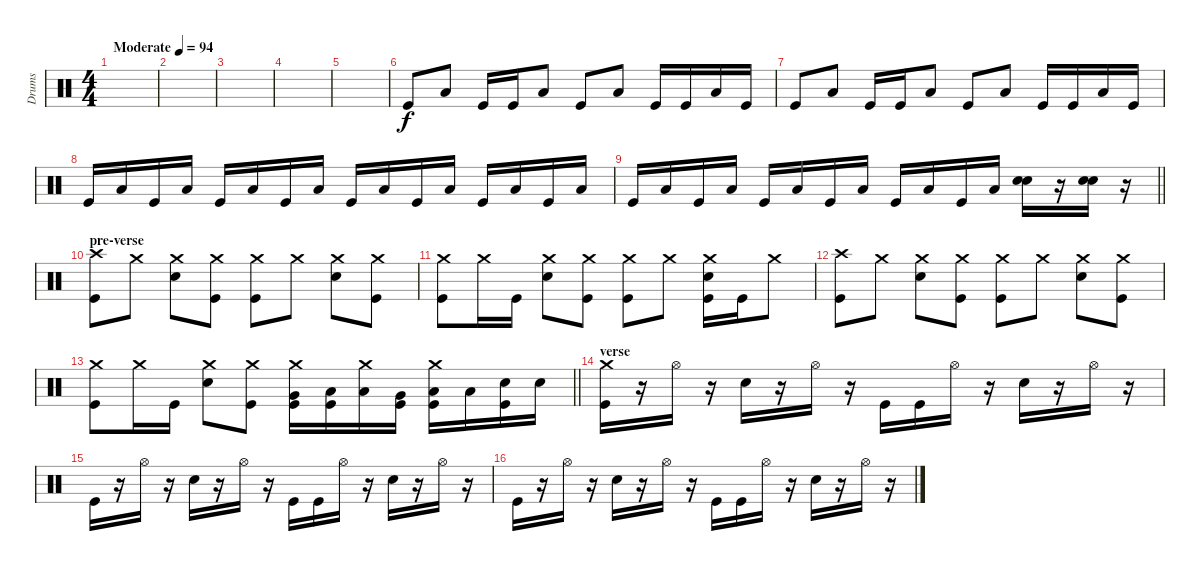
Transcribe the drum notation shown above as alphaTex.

\track ("Drums" "Drums") {instrument percussion}
\staff {score}
\articulation defaults
\ts (4 4)
\tempo (94 "Moderate")
\clef neutral
\ks c
|
|
|
|
|
"Kick (hit)".8 "Low Floor Tom (hit)".8 "Kick (hit)".16 "Kick (hit)".16 "Low Floor Tom (hit)".8 "Kick (hit)".8 "Low Floor Tom (hit)".8 "Kick (hit)".16 "Kick (hit)".16 "Low Floor Tom (hit)".16 "Kick (hit)".16 |
"Kick (hit)".8 "Low Floor Tom (hit)".8 "Kick (hit)".16 "Kick (hit)".16 "Low Floor Tom (hit)".8 "Kick (hit)".8 "Low Floor Tom (hit)".8 "Kick (hit)".16 "Kick (hit)".16 "Low Floor Tom (hit)".16 "Kick (hit)".16 |
"Kick (hit)".16 "Low Floor Tom (hit)".16 "Kick (hit)".16 "Low Floor Tom (hit)".16 "Kick (hit)".16 "Low Floor Tom (hit)".16 "Kick (hit)".16 "Low Floor Tom (hit)".16 "Kick (hit)".16 "Low Floor Tom (hit)".16 "Kick (hit)".16 "Low Floor Tom (hit)".16 "Kick (hit)".16 "Low Floor Tom (hit)".16 "Kick (hit)".16 "Low Floor Tom (hit)".16 |
\barLineRight lightlight "Kick (hit)".16 "Low Floor Tom (hit)".16 "Kick (hit)".16 "Low Floor Tom (hit)".16 "Kick (hit)".16 "Low Floor Tom (hit)".16 "Kick (hit)".16 "Low Floor Tom (hit)".16 "Kick (hit)".16 "Low Floor Tom (hit)".16 "Kick (hit)".16 "Low Floor Tom (hit)".16
("Electric Snare (hit)" "Electric Snare (hit)").16 r.16 ("Electric Snare (hit)" "Electric Snare (hit)").16 r.16 |
\section ("" "pre-verse")
("Crash high (hit)" "Kick (hit)").8 "Crash medium (hit)".8 ("Crash medium (hit)" "Electric Snare (hit)").8 ("Crash medium (hit)" "Kick (hit)").8 ("Crash medium (hit)" "Kick (hit)").8 "Crash medium (hit)".8 ("Crash medium (hit)" "Electric Snare (hit)").8 ("Crash medium (hit)" "Kick (hit)").8 |
("Crash medium (hit)" "Kick (hit)").8 "Crash medium (hit)".16 "Kick (hit)".16 ("Crash medium (hit)" "Electric Snare (hit)").8 ("Crash medium (hit)" "Kick (hit)").8 ("Crash medium (hit)" "Kick (hit)").8 "Crash medium (hit)".8 ("Crash medium (hit)" "Electric Snare (hit)" "Kick (hit)").16 "Kick (hit)".16 "Crash medium (hit)".8 |
("Crash high (hit)" "Kick (hit)").8 "Crash medium (hit)".8 ("Crash medium (hit)" "Electric Snare (hit)").8 ("Crash medium (hit)" "Kick (hit)").8 ("Crash medium (hit)" "Kick (hit)").8 "Crash medium (hit)".8 ("Crash medium (hit)" "Electric Snare (hit)").8 ("Crash medium (hit)" "Kick (hit)").8 |
\barLineRight lightlight
("Crash medium (hit)" "Kick (hit)").8 "Crash medium (hit)".16 "Kick (hit)".16 ("Crash medium (hit)" "Electric Snare (hit)").8 ("Crash medium (hit)" "Kick (hit)").8 ("Crash medium (hit)" "Very Low Tom (hit)" "Kick (hit)").16 ("Low Floor Tom (hit)" "Kick (hit)").16 ("Crash medium (hit)" "Low Floor Tom (hit)").16 ("Very Low Tom (hit)" "Kick (hit)").16 ("Crash medium (hit)" "Low Floor Tom (hit)" "Kick (hit)").16 "Low Floor Tom (hit)".16 ("Electric Snare (hit)" "Kick (hit)").16 "Electric Snare (hit)".16 |
\section ("" "verse")
("Crash medium (hit)" "Kick (hit)").16 r.16 "Hi-Hat (open)".16 r.16 "Electric Snare (hit)".16 r.16 "Hi-Hat (open)".16 r.16 "Kick (hit)".16 "Kick (hit)".16 "Hi-Hat (open)".16 r.16 "Electric Snare (hit)".16 r.16 "Hi-Hat (open)".16 r.16 |
"Kick (hit)".16 r.16 "Hi-Hat (open)".16 r.16 "Electric Snare (hit)".16 r.16 "Hi-Hat (open)".16 r.16 "Kick (hit)".16 "Kick (hit)".16 "Hi-Hat (open)".16 r.16 "Electric Snare (hit)".16 r.16 "Hi-Hat (open)".16 r.16 |
"Kick (hit)".16 r.16 "Hi-Hat (open)".16 r.16 "Electric Snare (hit)".16 r.16 "Hi-Hat (open)".16 r.16 "Kick (hit)".16 "Kick (hit)".16 "Hi-Hat (open)".16 r.16 "Electric Snare (hit)".16 r.16 "Hi-Hat (open)".16 r.16
